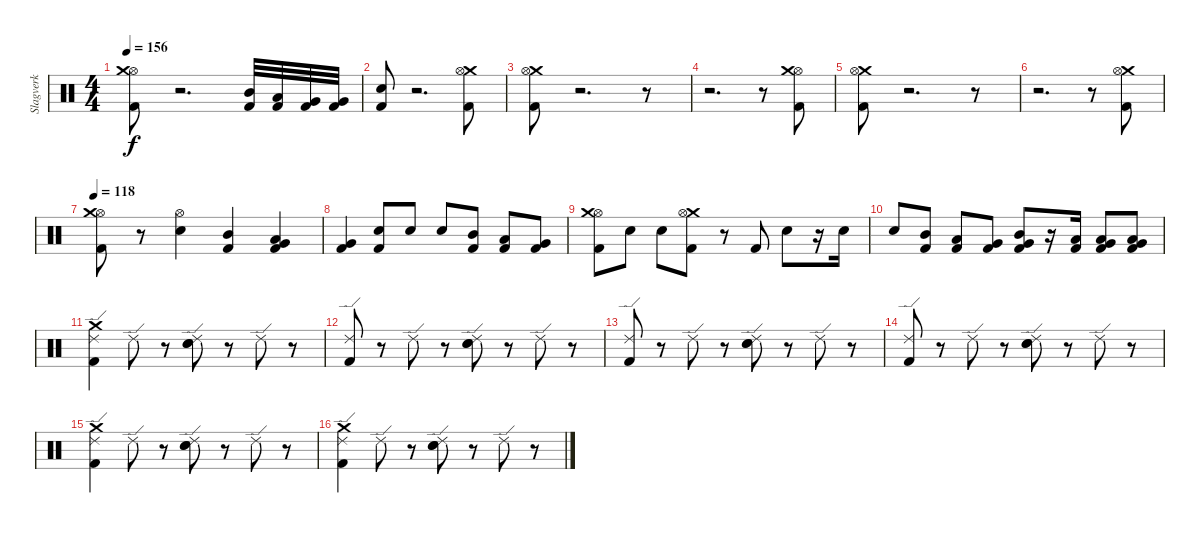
\track ("Slagverk" "Slagverk") {instrument percussion}
\staff {score}
\articulation defaults
\ts (4 4)
\tempo 156
\clef neutral
\ks c
("Hi-Hat (open)" "Crash medium (hit)" "Kick (hit) 2").8{dy f} r.2{d} ("Kick (hit) 2" "Mid Tom (hit)").32 ("Kick (hit) 2" "Low Tom (hit)").32 ("Kick (hit) 2" "Very Low Tom (hit)").32 ("Kick (hit) 2" "Very Low Tom (hit)").32 |
("Kick (hit) 2" "Snare (hit) 2").8 r.2{d} ("Crash medium (hit)" "Hi-Hat (open)" "Kick (hit) 2").8 |
("Crash medium (hit)" "Hi-Hat (open)" "Kick (hit) 2").8 r.2{d} r.8 |
r.2{d} r.8 ("Hi-Hat (open)" "Crash medium (hit)" "Kick (hit) 2").8 |
("Crash medium (hit)" "Hi-Hat (open)" "Kick (hit) 2").8 r.2{d} r.8 |
r.2{d} r.8 ("Crash medium (hit)" "Hi-Hat (open)" "Kick (hit) 2").8 |
\tempo 118
("Hi-Hat (open)" "Crash medium (hit)" "Kick (hit) 2").8 r.8 ("Hi-Hat (open)" "Snare (hit) 2").4 ("Mid Tom (hit)" "Kick (hit) 2").4 ("Low Tom (hit)" "Kick (hit) 2" "Very Low Tom (hit)").4 |
("Very Low Tom (hit)" "Kick (hit) 2").4 ("Kick (hit) 2" "Snare (hit) 2").8 "Snare (hit) 2".8 "Snare (hit) 2".8 ("Kick (hit) 2" "Mid Tom (hit)").8 ("Kick (hit) 2" "Low Tom (hit)").8 ("Kick (hit) 2" "Very Low Tom (hit)").8 |
("Hi-Hat (open)" "Crash medium (hit)" "Kick (hit) 2").8 "Snare (hit) 2".8 "Snare (hit) 2".8 ("Crash medium (hit)" "Hi-Hat (open)" "Kick (hit) 2").8 r.8 "Kick (hit) 2".8 "Snare (hit) 2".8 r.16 "Snare (hit) 2".16 |
"Snare (hit) 2".8 ("Mid Tom (hit)" "Kick (hit) 2").8 ("Low Tom (hit)" "Kick (hit) 2").8 ("Very Low Tom (hit)" "Kick (hit) 2").8 ("Mid Tom (hit)" "Very Low Tom (hit)" "Kick (hit) 2").8 r.16 ("Low Tom (hit)" "Kick (hit) 2").16 ("Low Floor Tom (hit)" "Very Low Tom (hit)" "Kick (hit) 2").8 ("Very Low Tom (hit)" "Low Floor Tom (hit)" "Kick (hit) 2").8 |
("Crash medium (hit)" "Kick (hit) 2" "Ride (edge) 2").4 "Ride (edge) 2".8 r.8 ("Electric Snare (hit)" "Snare (hit) 2" "Ride (edge) 2").8 r.8 "Ride (edge) 2".8 r.8 |
("Kick (hit) 2" "Ride (edge) 2").8 r.8 "Ride (edge) 2".8 r.8 ("Electric Snare (hit)" "Snare (hit) 2" "Ride (edge) 2").8 r.8 "Ride (edge) 2".8 r.8 |
("Kick (hit) 2" "Ride (edge) 2").8 r.8 "Ride (edge) 2".8 r.8 ("Electric Snare (hit)" "Snare (hit) 2" "Ride (edge) 2").8 r.8 "Ride (edge) 2".8 r.8 |
("Kick (hit) 2" "Ride (edge) 2").8 r.8 "Ride (edge) 2".8 r.8 ("Electric Snare (hit)" "Snare (hit) 2" "Ride (edge) 2").8 r.8 "Ride (edge) 2".8 r.8 |
("Crash medium (hit)" "Kick (hit) 2" "Ride (edge) 2").4 "Ride (edge) 2".8 r.8 ("Electric Snare (hit)" "Snare (hit) 2" "Ride (edge) 2").8 r.8 "Ride (edge) 2".8 r.8 |
("Crash medium (hit)" "Kick (hit) 2" "Ride (edge) 2").4 "Ride (edge) 2".8 r.8 ("Electric Snare (hit)" "Snare (hit) 2" "Ride (edge) 2").8 r.8 "Ride (edge) 2".8 r.8
